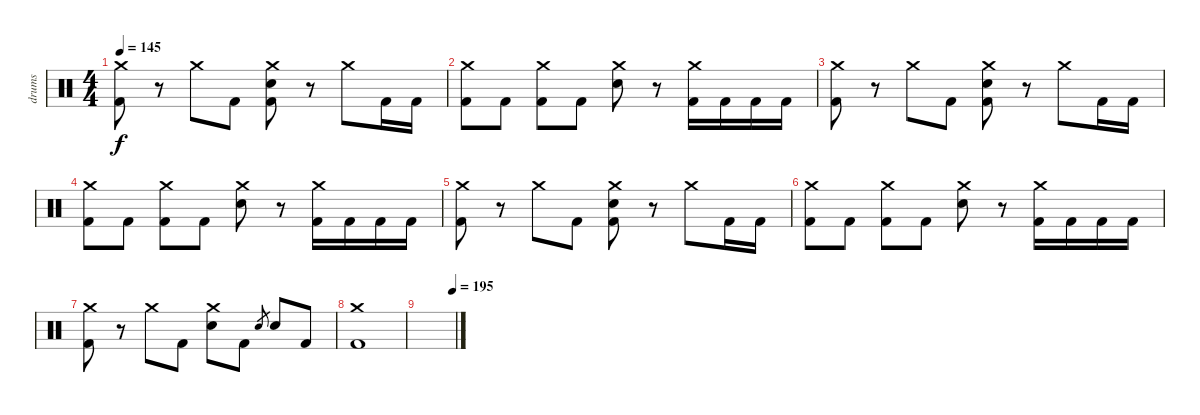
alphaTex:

\track ("drums" "drums") {instrument percussion}
\staff {score}
\articulation defaults
\ts (4 4)
\tempo 145
\clef neutral
\ks c
("Crash medium (hit)" "Kick (hit) 2").8{dy f} r.8 "Crash medium (hit)".8 "Kick (hit) 2".8 ("Crash medium (hit)" "Electric Snare (hit)" "Kick (hit) 2").8 r.8 "Crash medium (hit)".8 "Kick (hit) 2".16 "Kick (hit) 2".16 |
("Crash medium (hit)" "Kick (hit) 2").8 "Kick (hit) 2".8 ("Crash medium (hit)" "Kick (hit) 2").8 "Kick (hit) 2".8 ("Crash medium (hit)" "Electric Snare (hit)").8 r.8 ("Crash medium (hit)" "Kick (hit) 2").16 "Kick (hit) 2".16 "Kick (hit) 2".16 "Kick (hit) 2".16 |
("Crash medium (hit)" "Kick (hit) 2").8 r.8 "Crash medium (hit)".8 "Kick (hit) 2".8 ("Crash medium (hit)" "Electric Snare (hit)" "Kick (hit) 2").8 r.8 "Crash medium (hit)".8 "Kick (hit) 2".16 "Kick (hit) 2".16 |
("Crash medium (hit)" "Kick (hit) 2").8 "Kick (hit) 2".8 ("Crash medium (hit)" "Kick (hit) 2").8 "Kick (hit) 2".8 ("Crash medium (hit)" "Electric Snare (hit)").8 r.8 ("Crash medium (hit)" "Kick (hit) 2").16 "Kick (hit) 2".16 "Kick (hit) 2".16 "Kick (hit) 2".16 |
("Crash medium (hit)" "Kick (hit) 2").8 r.8 "Crash medium (hit)".8 "Kick (hit) 2".8 ("Crash medium (hit)" "Electric Snare (hit)" "Kick (hit) 2").8 r.8 "Crash medium (hit)".8 "Kick (hit) 2".16 "Kick (hit) 2".16 |
("Crash medium (hit)" "Kick (hit) 2").8 "Kick (hit) 2".8 ("Crash medium (hit)" "Kick (hit) 2").8 "Kick (hit) 2".8 ("Crash medium (hit)" "Electric Snare (hit)").8 r.8 ("Crash medium (hit)" "Kick (hit) 2").16 "Kick (hit) 2".16 "Kick (hit) 2".16 "Kick (hit) 2".16 |
("Crash medium (hit)" "Kick (hit) 2").8 r.8 "Crash medium (hit)".8 "Kick (hit) 2".8 ("Crash medium (hit)" "Electric Snare (hit)").8 "Kick (hit) 2".8 "Electric Snare (hit)".8{gr} "Electric Snare (hit)".8 "Kick (hit) 2".8 |
("Crash medium (hit)" "Kick (hit) 2").1 |
\tempo (195 0.9375)
